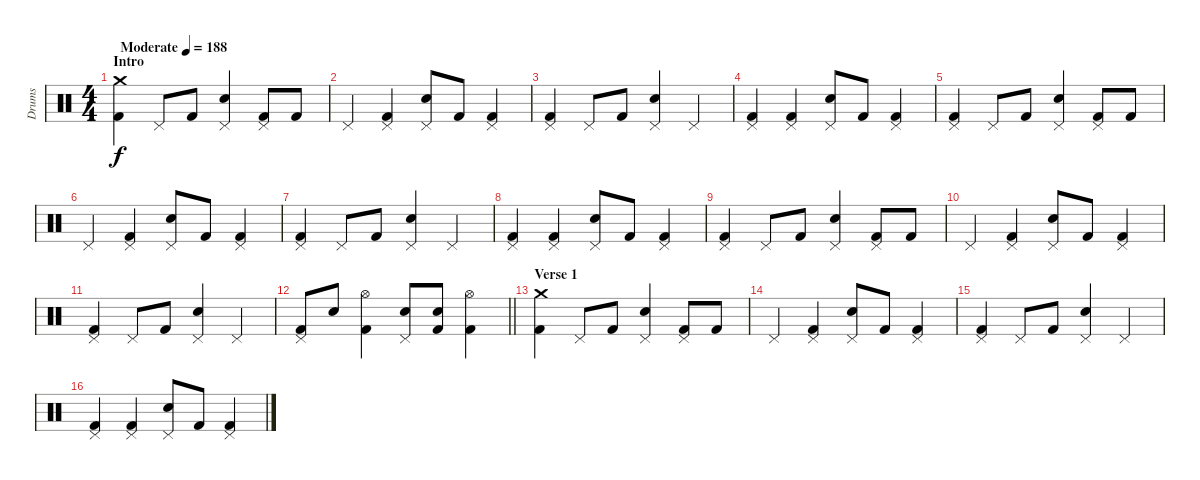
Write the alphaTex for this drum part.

\track ("Drums" "Drums") {instrument percussion}
\staff {score}
\articulation defaults
\ts (4 4)
\section ("" "Intro")
\tempo (188 "Moderate")
\clef neutral
\ks c
("Crash medium (hit)" "Kick (hit) 2").4{dy f} "Pedal Hi-Hat (hit)".8 "Kick (hit) 2".8 ("Pedal Hi-Hat (hit)" "Electric Snare (hit)").4 ("Pedal Hi-Hat (hit)" "Kick (hit) 2").8 "Kick (hit) 2".8 |
"Pedal Hi-Hat (hit)".4 ("Pedal Hi-Hat (hit)" "Kick (hit) 2").4 ("Pedal Hi-Hat (hit)" "Electric Snare (hit)").8 "Kick (hit) 2".8 ("Pedal Hi-Hat (hit)" "Kick (hit) 2").4 |
("Pedal Hi-Hat (hit)" "Kick (hit) 2").4 "Pedal Hi-Hat (hit)".8 "Kick (hit) 2".8 ("Pedal Hi-Hat (hit)" "Electric Snare (hit)").4 "Pedal Hi-Hat (hit)".4 |
("Pedal Hi-Hat (hit)" "Kick (hit) 2").4 ("Pedal Hi-Hat (hit)" "Kick (hit) 2").4 ("Pedal Hi-Hat (hit)" "Electric Snare (hit)").8 "Kick (hit) 2".8 ("Pedal Hi-Hat (hit)" "Kick (hit) 2").4 |
("Pedal Hi-Hat (hit)" "Kick (hit) 2").4 "Pedal Hi-Hat (hit)".8 "Kick (hit) 2".8 ("Pedal Hi-Hat (hit)" "Electric Snare (hit)").4 ("Pedal Hi-Hat (hit)" "Kick (hit) 2").8 "Kick (hit) 2".8 |
"Pedal Hi-Hat (hit)".4 ("Pedal Hi-Hat (hit)" "Kick (hit) 2").4 ("Pedal Hi-Hat (hit)" "Electric Snare (hit)").8 "Kick (hit) 2".8 ("Pedal Hi-Hat (hit)" "Kick (hit) 2").4 |
("Pedal Hi-Hat (hit)" "Kick (hit) 2").4 "Pedal Hi-Hat (hit)".8 "Kick (hit) 2".8 ("Pedal Hi-Hat (hit)" "Electric Snare (hit)").4 "Pedal Hi-Hat (hit)".4 |
("Pedal Hi-Hat (hit)" "Kick (hit) 2").4 ("Pedal Hi-Hat (hit)" "Kick (hit) 2").4 ("Pedal Hi-Hat (hit)" "Electric Snare (hit)").8 "Kick (hit) 2".8 ("Pedal Hi-Hat (hit)" "Kick (hit) 2").4 |
("Pedal Hi-Hat (hit)" "Kick (hit) 2").4 "Pedal Hi-Hat (hit)".8 "Kick (hit) 2".8 ("Pedal Hi-Hat (hit)" "Electric Snare (hit)").4 ("Pedal Hi-Hat (hit)" "Kick (hit) 2").8 "Kick (hit) 2".8 |
"Pedal Hi-Hat (hit)".4 ("Pedal Hi-Hat (hit)" "Kick (hit) 2").4 ("Pedal Hi-Hat (hit)" "Electric Snare (hit)").8 "Kick (hit) 2".8 ("Pedal Hi-Hat (hit)" "Kick (hit) 2").4 |
("Pedal Hi-Hat (hit)" "Kick (hit) 2").4 "Pedal Hi-Hat (hit)".8 "Kick (hit) 2".8 ("Pedal Hi-Hat (hit)" "Electric Snare (hit)").4 "Pedal Hi-Hat (hit)".4 |
\barLineRight lightlight
("Pedal Hi-Hat (hit)" "Kick (hit) 2").8 "Electric Snare (hit)".8 ("Hi-Hat (open)" "Kick (hit) 2").4 ("Pedal Hi-Hat (hit)" "Electric Snare (hit)").8 ("Electric Snare (hit)" "Kick (hit) 2").8 ("Hi-Hat (open)" "Kick (hit) 2").4 |
\section ("" "Verse 1")
("Crash medium (hit)" "Kick (hit) 2").4 "Pedal Hi-Hat (hit)".8 "Kick (hit) 2".8 ("Pedal Hi-Hat (hit)" "Electric Snare (hit)").4 ("Pedal Hi-Hat (hit)" "Kick (hit) 2").8 "Kick (hit) 2".8 |
"Pedal Hi-Hat (hit)".4 ("Pedal Hi-Hat (hit)" "Kick (hit) 2").4 ("Pedal Hi-Hat (hit)" "Electric Snare (hit)").8 "Kick (hit) 2".8 ("Pedal Hi-Hat (hit)" "Kick (hit) 2").4 |
("Pedal Hi-Hat (hit)" "Kick (hit) 2").4 "Pedal Hi-Hat (hit)".8 "Kick (hit) 2".8 ("Pedal Hi-Hat (hit)" "Electric Snare (hit)").4 "Pedal Hi-Hat (hit)".4 |
("Pedal Hi-Hat (hit)" "Kick (hit) 2").4 ("Pedal Hi-Hat (hit)" "Kick (hit) 2").4 ("Pedal Hi-Hat (hit)" "Electric Snare (hit)").8 "Kick (hit) 2".8 ("Pedal Hi-Hat (hit)" "Kick (hit) 2").4
